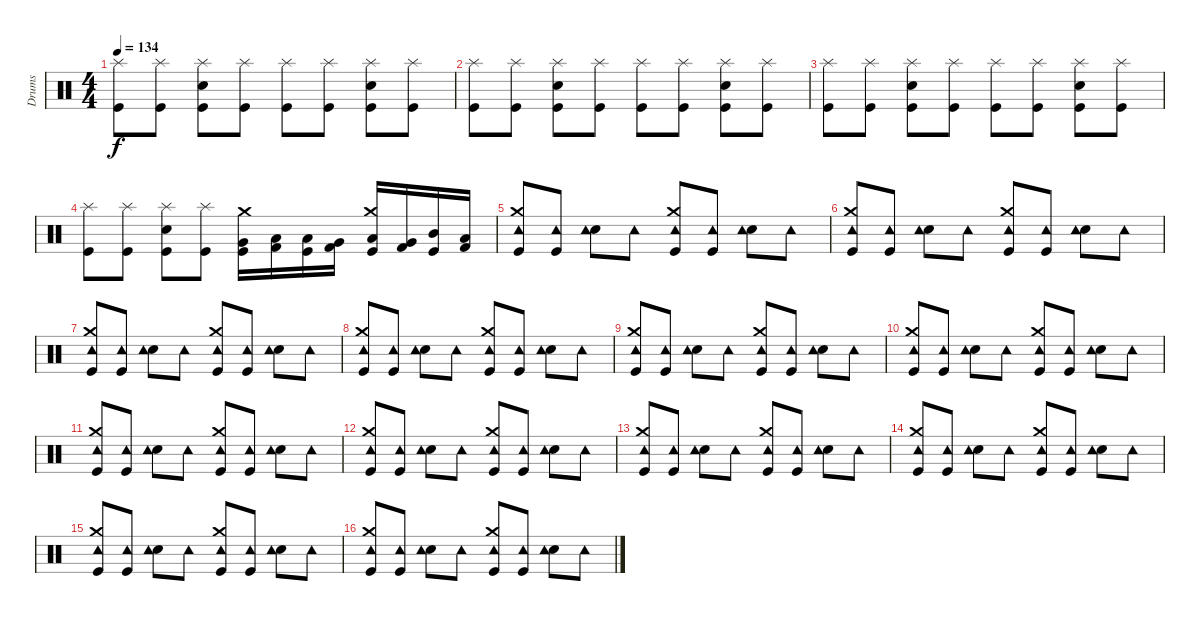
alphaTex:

\track ("Drums" "Drums") {instrument percussion}
\staff {score}
\articulation defaults
\ts (4 4)
\tempo 134
\clef neutral
\ks c
("Splash (hit)" "Kick (hit)").8{dy f} ("Splash (hit)" "Kick (hit)").8 ("Splash (hit)" "Kick (hit)" "Electric Snare (hit)").8 ("Splash (hit)" "Kick (hit)").8 ("Kick (hit)" "Splash (hit)").8 ("Splash (hit)" "Kick (hit)").8 ("Splash (hit)" "Kick (hit)" "Electric Snare (hit)").8 ("Splash (hit)" "Kick (hit)").8 |
("Splash (hit)" "Kick (hit)").8 ("Splash (hit)" "Kick (hit)").8 ("Splash (hit)" "Kick (hit)" "Electric Snare (hit)").8 ("Splash (hit)" "Kick (hit)").8 ("Kick (hit)" "Splash (hit)").8 ("Splash (hit)" "Kick (hit)").8 ("Splash (hit)" "Kick (hit)" "Electric Snare (hit)").8 ("Splash (hit)" "Kick (hit)").8 |
("Splash (hit)" "Kick (hit)").8 ("Splash (hit)" "Kick (hit)").8 ("Splash (hit)" "Kick (hit)" "Electric Snare (hit)").8 ("Splash (hit)" "Kick (hit)").8 ("Kick (hit)" "Splash (hit)").8 ("Splash (hit)" "Kick (hit)").8 ("Splash (hit)" "Kick (hit)" "Electric Snare (hit)").8 ("Splash (hit)" "Kick (hit)").8 |
("Splash (hit)" "Kick (hit)").8 ("Splash (hit)" "Kick (hit)").8 ("Splash (hit)" "Kick (hit)" "Electric Snare (hit)").8 ("Splash (hit)" "Kick (hit)").8 ("Very Low Tom (hit)" "Kick (hit)" "Crash medium (hit)").16 ("Kick (hit) 2" "Low Floor Tom (hit)").16 ("Kick (hit)" "Low Tom (hit)").16 ("Kick (hit) 2" "Very Low Tom (hit)").16 ("Kick (hit)" "Low Tom (hit)" "Crash medium (hit)").16 ("Kick (hit) 2" "Very Low Tom (hit)").16 ("Kick (hit)" "Mid Tom (hit)").16 ("Kick (hit) 2" "Low Tom (hit)").16 |
("Kick (hit)" "Tambourine (hit)" "Crash medium (hit)").8 ("Kick (hit)" "Tambourine (hit)").8 ("Electric Snare (hit)" "Tambourine (hit)").8 "Tambourine (hit)".8 ("Kick (hit)" "Tambourine (hit)" "Crash medium (hit)").8 ("Kick (hit)" "Tambourine (hit)").8 ("Electric Snare (hit)" "Tambourine (hit)").8 "Tambourine (hit)".8 |
("Crash medium (hit)" "Tambourine (hit)" "Kick (hit)").8 ("Kick (hit)" "Tambourine (hit)").8 ("Electric Snare (hit)" "Tambourine (hit)").8 "Tambourine (hit)".8 ("Kick (hit)" "Tambourine (hit)" "Crash medium (hit)").8 ("Kick (hit)" "Tambourine (hit)").8 ("Electric Snare (hit)" "Tambourine (hit)").8 "Tambourine (hit)".8 |
("Crash medium (hit)" "Tambourine (hit)" "Kick (hit)").8 ("Kick (hit)" "Tambourine (hit)").8 ("Electric Snare (hit)" "Tambourine (hit)").8 "Tambourine (hit)".8 ("Kick (hit)" "Tambourine (hit)" "Crash medium (hit)").8 ("Kick (hit)" "Tambourine (hit)").8 ("Electric Snare (hit)" "Tambourine (hit)").8 "Tambourine (hit)".8 |
("Crash medium (hit)" "Tambourine (hit)" "Kick (hit)").8 ("Kick (hit)" "Tambourine (hit)").8 ("Electric Snare (hit)" "Tambourine (hit)").8 "Tambourine (hit)".8 ("Kick (hit)" "Tambourine (hit)" "Crash medium (hit)").8 ("Kick (hit)" "Tambourine (hit)").8 ("Electric Snare (hit)" "Tambourine (hit)").8 "Tambourine (hit)".8 |
("Crash medium (hit)" "Tambourine (hit)" "Kick (hit)").8 ("Kick (hit)" "Tambourine (hit)").8 ("Electric Snare (hit)" "Tambourine (hit)").8 "Tambourine (hit)".8 ("Kick (hit)" "Tambourine (hit)" "Crash medium (hit)").8 ("Kick (hit)" "Tambourine (hit)").8 ("Electric Snare (hit)" "Tambourine (hit)").8 "Tambourine (hit)".8 |
("Crash medium (hit)" "Tambourine (hit)" "Kick (hit)").8 ("Kick (hit)" "Tambourine (hit)").8 ("Electric Snare (hit)" "Tambourine (hit)").8 "Tambourine (hit)".8 ("Kick (hit)" "Tambourine (hit)" "Crash medium (hit)").8 ("Kick (hit)" "Tambourine (hit)").8 ("Electric Snare (hit)" "Tambourine (hit)").8 "Tambourine (hit)".8 |
("Crash medium (hit)" "Tambourine (hit)" "Kick (hit)").8 ("Kick (hit)" "Tambourine (hit)").8 ("Electric Snare (hit)" "Tambourine (hit)").8 "Tambourine (hit)".8 ("Kick (hit)" "Tambourine (hit)" "Crash medium (hit)").8 ("Kick (hit)" "Tambourine (hit)").8 ("Electric Snare (hit)" "Tambourine (hit)").8 "Tambourine (hit)".8 |
("Crash medium (hit)" "Tambourine (hit)" "Kick (hit)").8 ("Kick (hit)" "Tambourine (hit)").8 ("Electric Snare (hit)" "Tambourine (hit)").8 "Tambourine (hit)".8 ("Kick (hit)" "Tambourine (hit)" "Crash medium (hit)").8 ("Kick (hit)" "Tambourine (hit)").8 ("Electric Snare (hit)" "Tambourine (hit)").8 "Tambourine (hit)".8 |
("Crash medium (hit)" "Tambourine (hit)" "Kick (hit)").8 ("Kick (hit)" "Tambourine (hit)").8 ("Electric Snare (hit)" "Tambourine (hit)").8 "Tambourine (hit)".8 ("Kick (hit)" "Tambourine (hit)" "Crash medium (hit)").8 ("Kick (hit)" "Tambourine (hit)").8 ("Electric Snare (hit)" "Tambourine (hit)").8 "Tambourine (hit)".8 |
("Crash medium (hit)" "Tambourine (hit)" "Kick (hit)").8 ("Kick (hit)" "Tambourine (hit)").8 ("Electric Snare (hit)" "Tambourine (hit)").8 "Tambourine (hit)".8 ("Kick (hit)" "Tambourine (hit)" "Crash medium (hit)").8 ("Kick (hit)" "Tambourine (hit)").8 ("Electric Snare (hit)" "Tambourine (hit)").8 "Tambourine (hit)".8 |
("Crash medium (hit)" "Tambourine (hit)" "Kick (hit)").8 ("Kick (hit)" "Tambourine (hit)").8 ("Electric Snare (hit)" "Tambourine (hit)").8 "Tambourine (hit)".8 ("Kick (hit)" "Tambourine (hit)" "Crash medium (hit)").8 ("Kick (hit)" "Tambourine (hit)").8 ("Electric Snare (hit)" "Tambourine (hit)").8 "Tambourine (hit)".8 |
("Crash medium (hit)" "Tambourine (hit)" "Kick (hit)").8 ("Kick (hit)" "Tambourine (hit)").8 ("Electric Snare (hit)" "Tambourine (hit)").8 "Tambourine (hit)".8 ("Kick (hit)" "Tambourine (hit)" "Crash medium (hit)").8 ("Kick (hit)" "Tambourine (hit)").8 ("Electric Snare (hit)" "Tambourine (hit)").8 "Tambourine (hit)".8
